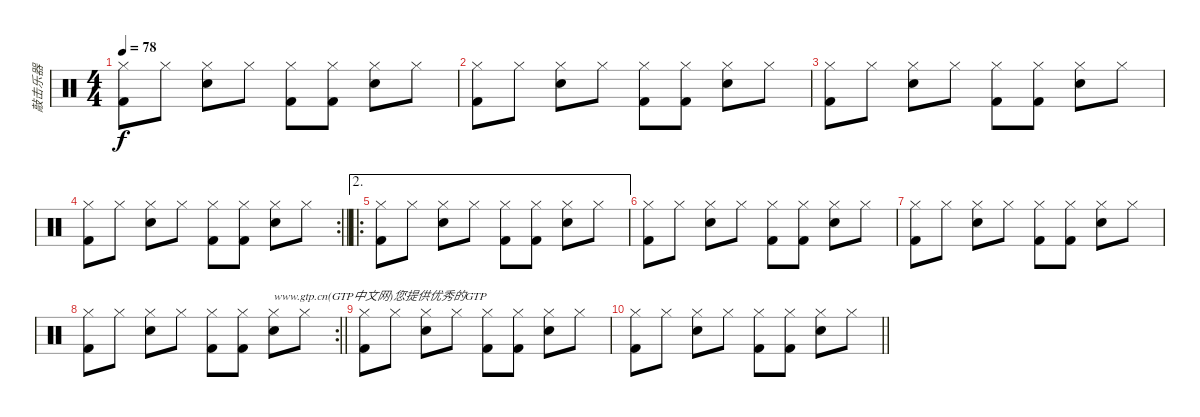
\track ("敲击乐器" "敲击乐器") {instrument percussion}
\staff {score}
\articulation defaults
\ts (4 4)
\tempo 78
\clef neutral
\ks c
("Hi-Hat (closed)" "Kick (hit) 2").8{dy f} "Hi-Hat (closed)".8 ("Hi-Hat (closed)" "Snare (hit) 2").8 "Hi-Hat (closed)".8 ("Hi-Hat (closed)" "Kick (hit) 2").8 ("Hi-Hat (closed)" "Kick (hit) 2").8 ("Hi-Hat (closed)" "Snare (hit) 2").8 "Hi-Hat (closed)".8 |
("Hi-Hat (closed)" "Kick (hit) 2").8 "Hi-Hat (closed)".8 ("Hi-Hat (closed)" "Snare (hit) 2").8 "Hi-Hat (closed)".8 ("Hi-Hat (closed)" "Kick (hit) 2").8 ("Hi-Hat (closed)" "Kick (hit) 2").8 ("Hi-Hat (closed)" "Snare (hit) 2").8 "Hi-Hat (closed)".8 |
("Hi-Hat (closed)" "Kick (hit) 2").8 "Hi-Hat (closed)".8 ("Hi-Hat (closed)" "Snare (hit) 2").8 "Hi-Hat (closed)".8 ("Hi-Hat (closed)" "Kick (hit) 2").8 ("Hi-Hat (closed)" "Kick (hit) 2").8 ("Hi-Hat (closed)" "Snare (hit) 2").8 "Hi-Hat (closed)".8 |
\rc 2
\barLineRight lightlight
("Hi-Hat (closed)" "Kick (hit) 2").8 "Hi-Hat (closed)".8 ("Hi-Hat (closed)" "Snare (hit) 2").8 "Hi-Hat (closed)".8 ("Hi-Hat (closed)" "Kick (hit) 2").8 ("Hi-Hat (closed)" "Kick (hit) 2").8 ("Hi-Hat (closed)" "Snare (hit) 2").8 "Hi-Hat (closed)".8 |
\ae 2
\ro
("Hi-Hat (closed)" "Kick (hit) 2").8 "Hi-Hat (closed)".8 ("Hi-Hat (closed)" "Snare (hit) 2").8 "Hi-Hat (closed)".8 ("Hi-Hat (closed)" "Kick (hit) 2").8 ("Hi-Hat (closed)" "Kick (hit) 2").8 ("Hi-Hat (closed)" "Snare (hit) 2").8 "Hi-Hat (closed)".8 |
("Hi-Hat (closed)" "Kick (hit) 2").8 "Hi-Hat (closed)".8 ("Hi-Hat (closed)" "Snare (hit) 2").8 "Hi-Hat (closed)".8 ("Hi-Hat (closed)" "Kick (hit) 2").8 ("Hi-Hat (closed)" "Kick (hit) 2").8 ("Hi-Hat (closed)" "Snare (hit) 2").8 "Hi-Hat (closed)".8 |
("Hi-Hat (closed)" "Kick (hit) 2").8 "Hi-Hat (closed)".8 ("Hi-Hat (closed)" "Snare (hit) 2").8 "Hi-Hat (closed)".8 ("Hi-Hat (closed)" "Kick (hit) 2").8 ("Hi-Hat (closed)" "Kick (hit) 2").8 ("Hi-Hat (closed)" "Snare (hit) 2").8 "Hi-Hat (closed)".8 |
\rc 2
\barLineRight lightlight
("Hi-Hat (closed)" "Kick (hit) 2").8 "Hi-Hat (closed)".8 ("Hi-Hat (closed)" "Snare (hit) 2").8 "Hi-Hat (closed)".8 ("Hi-Hat (closed)" "Kick (hit) 2").8 ("Hi-Hat (closed)" "Kick (hit) 2").8 ("Hi-Hat (closed)" "Snare (hit) 2").8{txt "www.gtp.cn(GTP中文网)您提供优秀的GTP"} "Hi-Hat (closed)".8 |
("Hi-Hat (closed)" "Kick (hit) 2").8 "Hi-Hat (closed)".8 ("Hi-Hat (closed)" "Snare (hit) 2").8 "Hi-Hat (closed)".8 ("Hi-Hat (closed)" "Kick (hit) 2").8 ("Hi-Hat (closed)" "Kick (hit) 2").8 ("Hi-Hat (closed)" "Snare (hit) 2").8 "Hi-Hat (closed)".8 |
\barLineRight lightlight
("Hi-Hat (closed)" "Kick (hit) 2").8 "Hi-Hat (closed)".8 ("Hi-Hat (closed)" "Snare (hit) 2").8 "Hi-Hat (closed)".8 ("Hi-Hat (closed)" "Kick (hit) 2").8 ("Hi-Hat (closed)" "Kick (hit) 2").8 ("Hi-Hat (closed)" "Snare (hit) 2").8 "Hi-Hat (closed)".8
